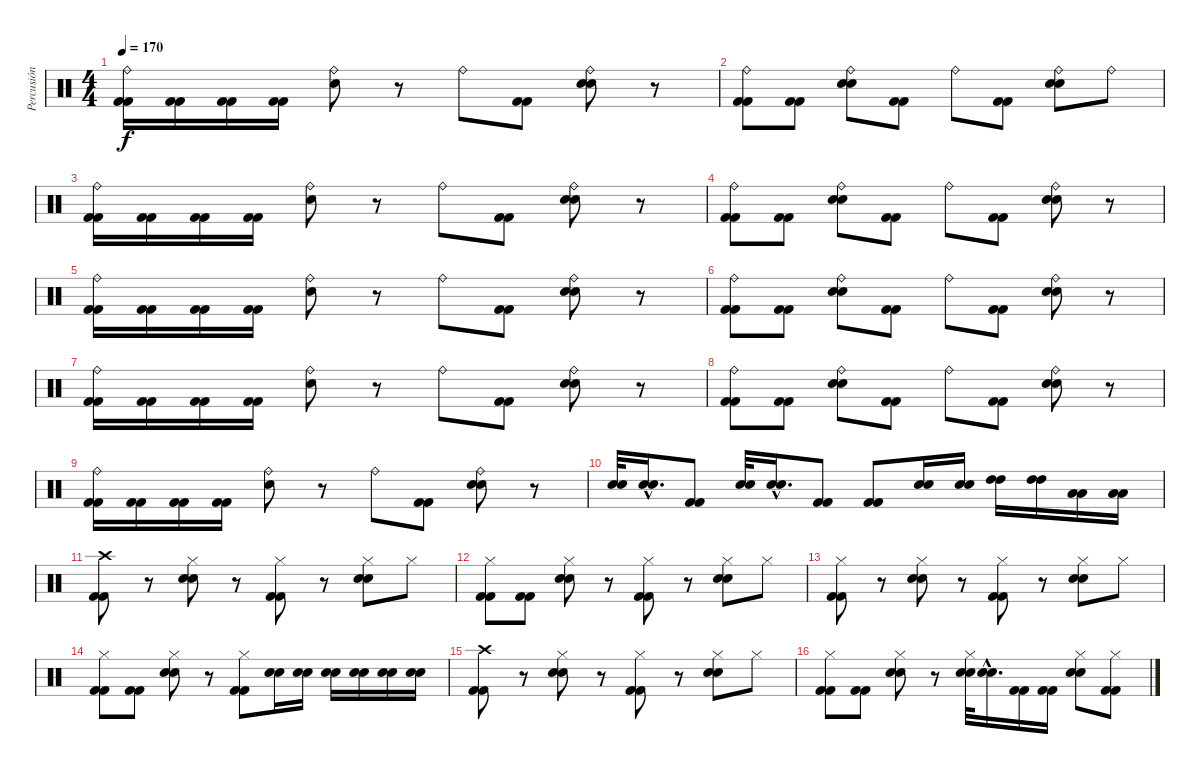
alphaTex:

\track ("Percusión" "Percusión") {instrument percussion}
\staff {score}
\articulation defaults
\ts (4 4)
\tempo 170
\clef neutral
\ks c
("Ride (bell)" "Kick (hit) 2" "Kick (hit) 2").16{dy f} ("Kick (hit) 2" "Kick (hit) 2").16 ("Kick (hit) 2" "Kick (hit) 2").16 ("Kick (hit) 2" "Kick (hit) 2").16 ("Ride (bell)" "Electric Snare (hit)").8 r.8 "Ride (bell)".8 ("Kick (hit) 2" "Kick (hit) 2").8 ("Ride (bell)" "Electric Snare (hit)" "Electric Snare (hit)").8 r.8 |
("Ride (bell)" "Kick (hit) 2" "Kick (hit) 2").8 ("Kick (hit) 2" "Kick (hit) 2").8 ("Ride (bell)" "Electric Snare (hit)" "Electric Snare (hit)").8 ("Kick (hit) 2" "Kick (hit) 2").8 "Ride (bell)".8 ("Kick (hit) 2" "Kick (hit) 2").8 ("Ride (bell)" "Electric Snare (hit)" "Electric Snare (hit)").8 "Ride (bell)".8 |
("Ride (bell)" "Kick (hit) 2" "Kick (hit) 2").16 ("Kick (hit) 2" "Kick (hit) 2").16 ("Kick (hit) 2" "Kick (hit) 2").16 ("Kick (hit) 2" "Kick (hit) 2").16 ("Ride (bell)" "Electric Snare (hit)").8 r.8 "Ride (bell)".8 ("Kick (hit) 2" "Kick (hit) 2").8 ("Ride (bell)" "Electric Snare (hit)" "Electric Snare (hit)").8 r.8 |
("Ride (bell)" "Kick (hit) 2" "Kick (hit) 2").8 ("Kick (hit) 2" "Kick (hit) 2").8 ("Ride (bell)" "Electric Snare (hit)" "Electric Snare (hit)").8 ("Kick (hit) 2" "Kick (hit) 2").8 "Ride (bell)".8 ("Kick (hit) 2" "Kick (hit) 2").8 ("Ride (bell)" "Electric Snare (hit)" "Electric Snare (hit)").8 r.8 |
("Ride (bell)" "Kick (hit) 2" "Kick (hit) 2").16 ("Kick (hit) 2" "Kick (hit) 2").16 ("Kick (hit) 2" "Kick (hit) 2").16 ("Kick (hit) 2" "Kick (hit) 2").16 ("Ride (bell)" "Electric Snare (hit)").8 r.8 "Ride (bell)".8 ("Kick (hit) 2" "Kick (hit) 2").8 ("Ride (bell)" "Electric Snare (hit)" "Electric Snare (hit)").8 r.8 |
("Ride (bell)" "Kick (hit) 2" "Kick (hit) 2").8 ("Kick (hit) 2" "Kick (hit) 2").8 ("Ride (bell)" "Electric Snare (hit)" "Electric Snare (hit)").8 ("Kick (hit) 2" "Kick (hit) 2").8 "Ride (bell)".8 ("Kick (hit) 2" "Kick (hit) 2").8 ("Ride (bell)" "Electric Snare (hit)" "Electric Snare (hit)").8 r.8 |
("Ride (bell)" "Kick (hit) 2" "Kick (hit) 2").16 ("Kick (hit) 2" "Kick (hit) 2").16 ("Kick (hit) 2" "Kick (hit) 2").16 ("Kick (hit) 2" "Kick (hit) 2").16 ("Ride (bell)" "Electric Snare (hit)").8 r.8 "Ride (bell)".8 ("Kick (hit) 2" "Kick (hit) 2").8 ("Ride (bell)" "Electric Snare (hit)" "Electric Snare (hit)").8 r.8 |
("Ride (bell)" "Kick (hit) 2" "Kick (hit) 2").8 ("Kick (hit) 2" "Kick (hit) 2").8 ("Ride (bell)" "Electric Snare (hit)" "Electric Snare (hit)").8 ("Kick (hit) 2" "Kick (hit) 2").8 "Ride (bell)".8 ("Kick (hit) 2" "Kick (hit) 2").8 ("Ride (bell)" "Electric Snare (hit)" "Electric Snare (hit)").8 r.8 |
("Ride (bell)" "Kick (hit) 2" "Kick (hit) 2").16 ("Kick (hit) 2" "Kick (hit) 2").16 ("Kick (hit) 2" "Kick (hit) 2").16 ("Kick (hit) 2" "Kick (hit) 2").16 ("Ride (bell)" "Electric Snare (hit)").8 r.8 "Ride (bell)".8 ("Kick (hit) 2" "Kick (hit) 2").8 ("Ride (bell)" "Electric Snare (hit)" "Electric Snare (hit)").8 r.8 |
("Electric Snare (hit)" "Electric Snare (hit)").32 ("Electric Snare (hit)"{hac} "Electric Snare (hit)"{hac}).16{d} ("Kick (hit) 2" "Kick (hit) 2").8 ("Electric Snare (hit)" "Electric Snare (hit)").32 ("Electric Snare (hit)"{hac} "Electric Snare (hit)"{hac}).16{d} ("Kick (hit) 2" "Kick (hit) 2").8 ("Kick (hit) 2" "Kick (hit) 2").8 ("Electric Snare (hit)" "Electric Snare (hit)").16 ("Electric Snare (hit)" "Electric Snare (hit)").16 ("High Tom (hit)" "High Tom (hit)").16 ("High Tom (hit)" "High Tom (hit)").16 ("Low Tom (hit)" "Low Tom (hit)").16 ("Low Tom (hit)" "Low Tom (hit)").16 |
("Crash high (hit)" "Kick (hit) 2" "Kick (hit) 2").8 r.8 ("Hi-Hat (closed)" "Electric Snare (hit)" "Electric Snare (hit)").8 r.8 ("Hi-Hat (closed)" "Kick (hit) 2" "Kick (hit) 2").8 r.8 ("Hi-Hat (closed)" "Electric Snare (hit)" "Electric Snare (hit)").8 "Hi-Hat (closed)".8 |
("Hi-Hat (closed)" "Kick (hit) 2" "Kick (hit) 2").8 ("Kick (hit) 2" "Kick (hit) 2").8 ("Hi-Hat (closed)" "Electric Snare (hit)" "Electric Snare (hit)").8 r.8 ("Hi-Hat (closed)" "Kick (hit) 2" "Kick (hit) 2").8 r.8 ("Hi-Hat (closed)" "Electric Snare (hit)" "Electric Snare (hit)").8 "Hi-Hat (closed)".8 |
("Hi-Hat (closed)" "Kick (hit) 2" "Kick (hit) 2").8 r.8 ("Hi-Hat (closed)" "Electric Snare (hit)" "Electric Snare (hit)").8 r.8 ("Hi-Hat (closed)" "Kick (hit) 2" "Kick (hit) 2").8 r.8 ("Hi-Hat (closed)" "Electric Snare (hit)" "Electric Snare (hit)").8 "Hi-Hat (closed)".8 |
("Hi-Hat (closed)" "Kick (hit) 2" "Kick (hit) 2").8 ("Kick (hit) 2" "Kick (hit) 2").8 ("Hi-Hat (closed)" "Electric Snare (hit)" "Electric Snare (hit)").8 r.8 ("Hi-Hat (closed)" "Kick (hit) 2" "Kick (hit) 2").8 ("Electric Snare (hit)" "Electric Snare (hit)").16 ("Electric Snare (hit)" "Electric Snare (hit)").16 ("Electric Snare (hit)" "Electric Snare (hit)").16 ("Electric Snare (hit)" "Electric Snare (hit)").16 ("Electric Snare (hit)" "Electric Snare (hit)").16 ("Electric Snare (hit)" "Electric Snare (hit)").16 |
("Crash high (hit)" "Kick (hit) 2" "Kick (hit) 2").8 r.8 ("Hi-Hat (closed)" "Electric Snare (hit)" "Electric Snare (hit)").8 r.8 ("Hi-Hat (closed)" "Kick (hit) 2" "Kick (hit) 2").8 r.8 ("Hi-Hat (closed)" "Electric Snare (hit)" "Electric Snare (hit)").8 "Hi-Hat (closed)".8 |
("Hi-Hat (closed)" "Kick (hit) 2" "Kick (hit) 2").8 ("Kick (hit) 2" "Kick (hit) 2").8 ("Hi-Hat (closed)" "Electric Snare (hit)" "Electric Snare (hit)").8 r.8 ("Hi-Hat (closed)" "Electric Snare (hit)" "Electric Snare (hit)").32 ("Electric Snare (hit)"{hac} "Electric Snare (hit)"{hac}).16{d} ("Kick (hit) 2" "Kick (hit) 2").16 ("Kick (hit) 2" "Kick (hit) 2").16 ("Hi-Hat (closed)" "Electric Snare (hit)" "Electric Snare (hit)").8 ("Hi-Hat (closed)" "Kick (hit) 2" "Kick (hit) 2").8
